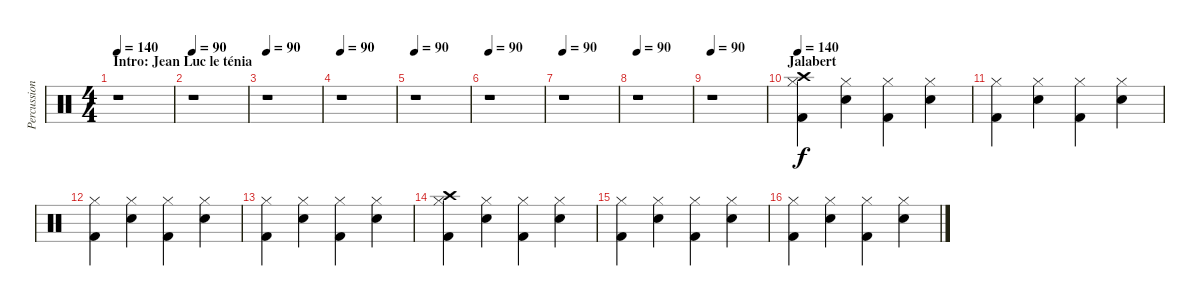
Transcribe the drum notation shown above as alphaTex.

\track ("Percussions" "Percussion") {instrument percussion}
\staff {score}
\articulation defaults
\ts (4 4)
\section ("" "Intro: Jean Luc le ténia")
\tempo 140
\tempo 90
\tempo 140
\clef neutral
\ks c
r.1{dy f} |
\tempo 90
r.1 |
\tempo 90
r.1 |
\tempo 90
r.1 |
\tempo 90
r.1 |
\tempo 90
r.1 |
\tempo 90
r.1 |
\tempo 90
r.1 |
\tempo 90
r.1 |
\section ("" "Jalabert")
\tempo 140
("Kick (hit) 2" "Crash high (hit)" "Hi-Hat (closed)").4 ("Snare (hit) 2" "Hi-Hat (closed)").4 ("Kick (hit) 2" "Hi-Hat (closed)").4 ("Snare (hit) 2" "Hi-Hat (closed)").4 |
("Kick (hit) 2" "Hi-Hat (closed)").4 ("Snare (hit) 2" "Hi-Hat (closed)").4 ("Kick (hit) 2" "Hi-Hat (closed)").4 ("Snare (hit) 2" "Hi-Hat (closed)").4 |
("Kick (hit) 2" "Hi-Hat (closed)").4 ("Snare (hit) 2" "Hi-Hat (closed)").4 ("Kick (hit) 2" "Hi-Hat (closed)").4 ("Snare (hit) 2" "Hi-Hat (closed)").4 |
("Kick (hit) 2" "Hi-Hat (closed)").4 ("Snare (hit) 2" "Hi-Hat (closed)").4 ("Kick (hit) 2" "Hi-Hat (closed)").4 ("Snare (hit) 2" "Hi-Hat (closed)").4 |
("Kick (hit) 2" "Crash high (hit)" "Hi-Hat (closed)").4 ("Snare (hit) 2" "Hi-Hat (closed)").4 ("Kick (hit) 2" "Hi-Hat (closed)").4 ("Snare (hit) 2" "Hi-Hat (closed)").4 |
("Kick (hit) 2" "Hi-Hat (closed)").4 ("Snare (hit) 2" "Hi-Hat (closed)").4 ("Kick (hit) 2" "Hi-Hat (closed)").4 ("Snare (hit) 2" "Hi-Hat (closed)").4 |
("Kick (hit) 2" "Hi-Hat (closed)").4 ("Snare (hit) 2" "Hi-Hat (closed)").4 ("Kick (hit) 2" "Hi-Hat (closed)").4 ("Snare (hit) 2" "Hi-Hat (closed)").4
